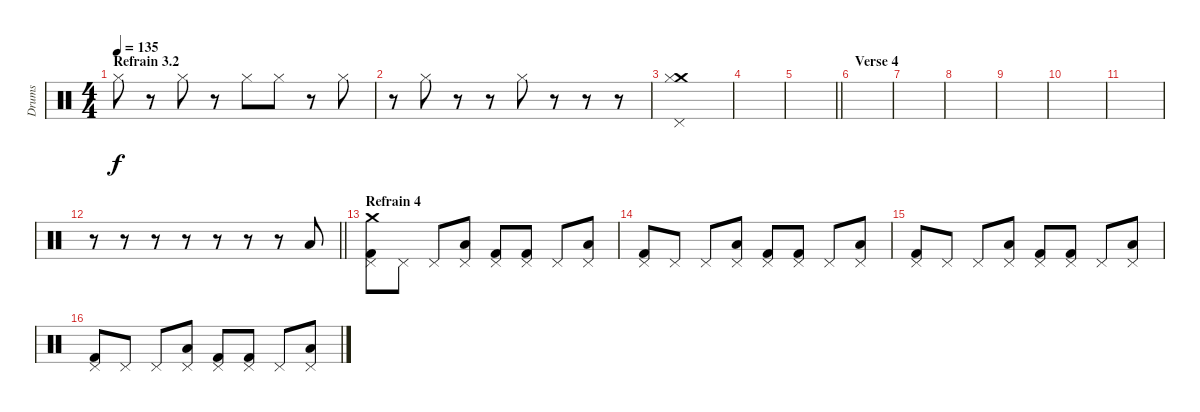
\track ("Drums" "Drums") {instrument percussion}
\staff {score}
\articulation defaults
\ts (4 4)
\section ("" "Refrain 3.2")
\tempo 135
\clef neutral
\ks c "Hi-Hat (closed)".8{dy f}
r.8 "Hi-Hat (closed)".8 r.8 "Hi-Hat (closed)".8 "Hi-Hat (closed)".8 r.8 "Hi-Hat (closed)".8 |
r.8 "Hi-Hat (closed)".8 r.8 r.8 "Hi-Hat (closed)".8 r.8 r.8 r.8 |
("Crash medium (hit)" "Pedal Hi-Hat (hit)" "Hi-Hat (closed)").1 |
|
\barLineRight lightlight
|
\section ("" "Verse 4")
|
|
|
|
|
|
\barLineRight lightlight
r.8 r.8 r.8 r.8 r.8 r.8 r.8 "Low Tom (hit)".8 |
\section ("" "Refrain 4")
("Kick (hit) 2" "Crash medium (hit)" "Pedal Hi-Hat (hit)").8 "Pedal Hi-Hat (hit)".8 "Pedal Hi-Hat (hit)".8 ("Low Tom (hit)" "Pedal Hi-Hat (hit)").8 ("Kick (hit) 2" "Pedal Hi-Hat (hit)").8 ("Kick (hit) 2" "Pedal Hi-Hat (hit)").8 "Pedal Hi-Hat (hit)".8 ("Low Tom (hit)" "Pedal Hi-Hat (hit)").8 |
("Kick (hit) 2" "Pedal Hi-Hat (hit)").8 "Pedal Hi-Hat (hit)".8 "Pedal Hi-Hat (hit)".8 ("Low Tom (hit)" "Pedal Hi-Hat (hit)").8 ("Kick (hit) 2" "Pedal Hi-Hat (hit)").8 ("Kick (hit) 2" "Pedal Hi-Hat (hit)").8 "Pedal Hi-Hat (hit)".8 ("Low Tom (hit)" "Pedal Hi-Hat (hit)").8 |
("Kick (hit) 2" "Pedal Hi-Hat (hit)").8 "Pedal Hi-Hat (hit)".8 "Pedal Hi-Hat (hit)".8 ("Low Tom (hit)" "Pedal Hi-Hat (hit)").8 ("Kick (hit) 2" "Pedal Hi-Hat (hit)").8 ("Kick (hit) 2" "Pedal Hi-Hat (hit)").8 "Pedal Hi-Hat (hit)".8 ("Low Tom (hit)" "Pedal Hi-Hat (hit)").8 |
("Kick (hit) 2" "Pedal Hi-Hat (hit)").8 "Pedal Hi-Hat (hit)".8 "Pedal Hi-Hat (hit)".8 ("Low Tom (hit)" "Pedal Hi-Hat (hit)").8 ("Kick (hit) 2" "Pedal Hi-Hat (hit)").8 ("Kick (hit) 2" "Pedal Hi-Hat (hit)").8 "Pedal Hi-Hat (hit)".8 ("Low Tom (hit)" "Pedal Hi-Hat (hit)").8
